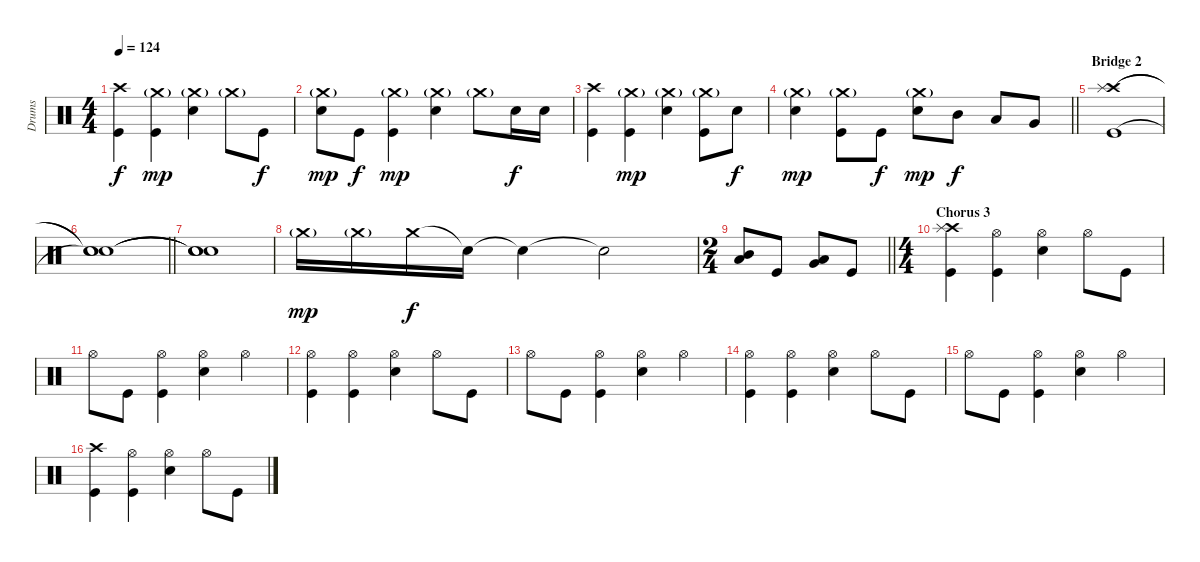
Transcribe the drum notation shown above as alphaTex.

\track ("Drums" "Drums") {instrument percussion}
\staff {score}
\articulation defaults
\ts (4 4)
\tempo 124
\clef neutral
\ks c
("Crash high (hit)" "Kick (hit)").4{dy f} ("Crash medium (hit)"{g} "Kick (hit)").4{dy mp} ("Crash medium (hit)"{g} "Snare (hit) 2").4 "Crash medium (hit)"{g}.8 "Kick (hit)".8{dy f} |
("Crash medium (hit)"{g} "Snare (hit) 2").8{dy mp} "Kick (hit)".8{dy f} ("Crash medium (hit)"{g} "Kick (hit)").4{dy mp} ("Crash medium (hit)"{g} "Snare (hit) 2").4 "Crash medium (hit)"{g}.8 "Snare (hit) 2".16{dy f} "Snare (hit) 2".16 |
("Crash high (hit)" "Kick (hit)").4 ("Crash medium (hit)"{g} "Kick (hit)").4{dy mp} ("Crash medium (hit)"{g} "Snare (hit) 2").4 ("Crash medium (hit)"{g} "Kick (hit)").8 "Snare (hit) 2".8{dy f} |
\barLineRight lightlight
("Crash medium (hit)"{g} "Snare (hit) 2").4{dy mp} ("Crash medium (hit)"{g} "Kick (hit)").8 "Kick (hit)".8{dy f} ("Crash medium (hit)"{g} "Snare (hit) 2").8{dy mp} "Mid Tom (hit)".8{dy f} "Low Tom (hit)".8 "Very Low Tom (hit)".8 |
\section ("" "Bridge 2")
("Crash high (hit)" "Splash (hit)" "Kick (hit)").1 |
\barLineRight lightlight
("Snare (hit)"{t} "Snare (hit)"{t} "Snare (hit)"{t}).1 |
("Snare (hit)"{t} "Snare (hit)"{t} "Snare (hit)"{t}).1{volume 0} |
"Crash medium (hit)"{g}.16{dy mp volume 9} "Crash medium (hit)"{g}.16 "Crash medium (hit)".16{dy f} "Snare (hit)"{t}.16 "Snare (hit)"{t}.4 "Snare (hit)"{t}.2 |
\ts (2 4)
\barLineRight lightlight
("Mid Tom (hit)" "Low Tom (hit)").8 "Kick (hit)".8 ("Low Tom (hit)" "Very Low Tom (hit)").8 "Kick (hit)".8 |
\ts (4 4)
\section ("" "Chorus 3")
("Crash high (hit)" "Splash (hit)" "Kick (hit)").4 ("Hi-Hat (open)" "Kick (hit)").4 ("Hi-Hat (open)" "Snare (hit) 2").4 "Hi-Hat (open)".8 "Kick (hit)".8 |
"Hi-Hat (open)".8 "Kick (hit)".8 ("Hi-Hat (open)" "Kick (hit)").4 ("Hi-Hat (open)" "Snare (hit) 2").4 "Hi-Hat (open)".4 |
("Hi-Hat (open)" "Kick (hit)").4 ("Hi-Hat (open)" "Kick (hit)").4 ("Hi-Hat (open)" "Snare (hit) 2").4 "Hi-Hat (open)".8 "Kick (hit)".8 |
"Hi-Hat (open)".8 "Kick (hit)".8 ("Hi-Hat (open)" "Kick (hit)").4 ("Hi-Hat (open)" "Snare (hit) 2").4 "Hi-Hat (open)".4 |
("Hi-Hat (open)" "Kick (hit)").4 ("Hi-Hat (open)" "Kick (hit)").4 ("Hi-Hat (open)" "Snare (hit) 2").4 "Hi-Hat (open)".8 "Kick (hit)".8 |
"Hi-Hat (open)".8 "Kick (hit)".8 ("Hi-Hat (open)" "Kick (hit)").4 ("Hi-Hat (open)" "Snare (hit) 2").4 "Hi-Hat (open)".4 |
("Crash high (hit)" "Kick (hit)").4 ("Hi-Hat (open)" "Kick (hit)").4 ("Hi-Hat (open)" "Snare (hit) 2").4 "Hi-Hat (open)".8 "Kick (hit)".8
